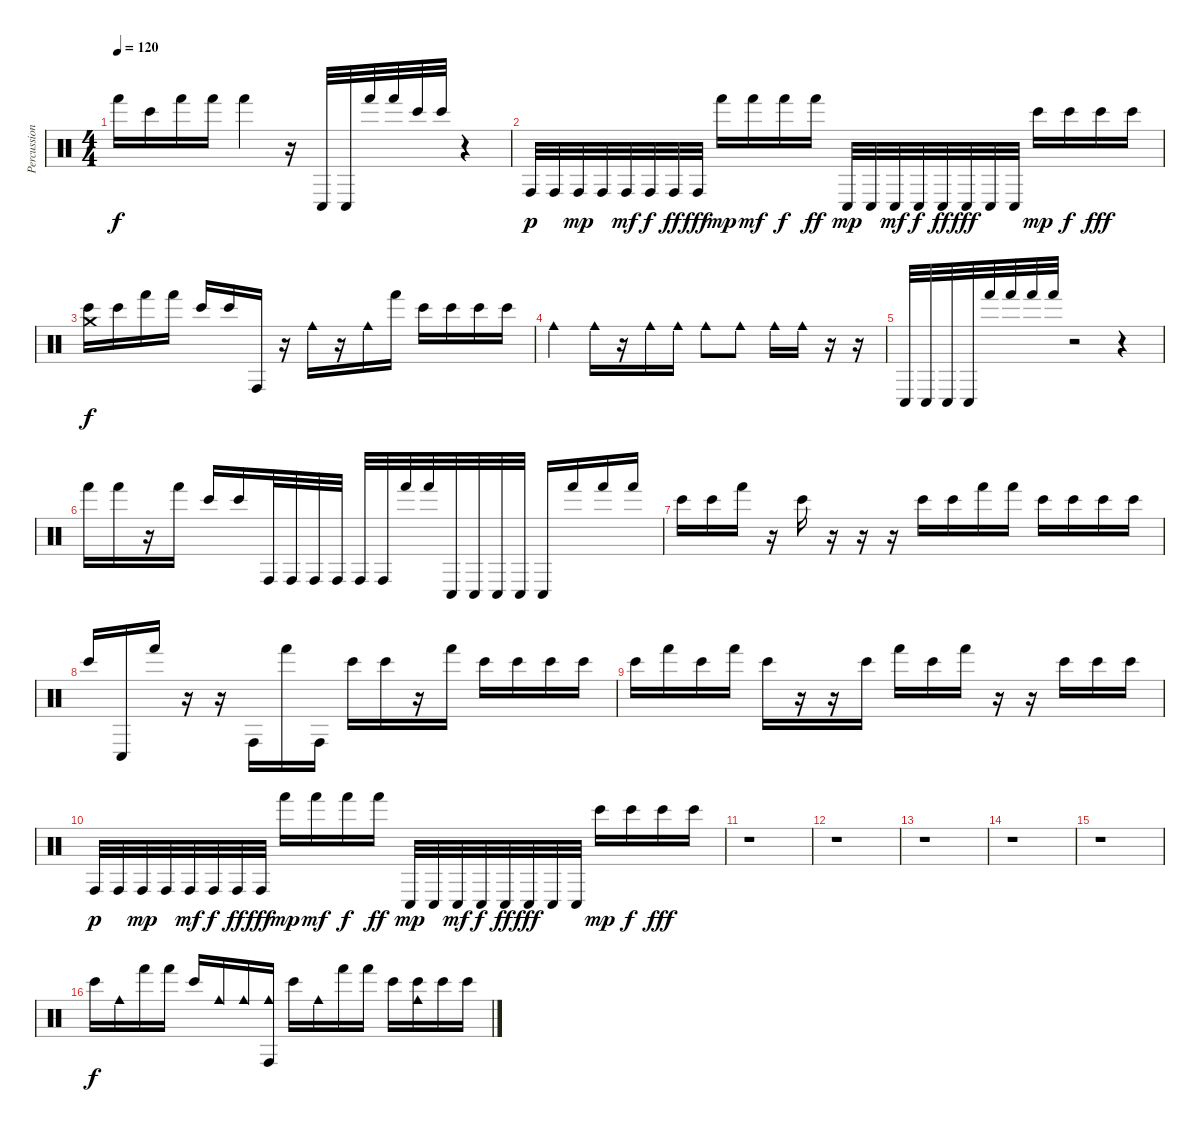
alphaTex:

\track ("Percussions" "Percussion") {instrument percussion}
\staff {score}
\articulation defaults
\ts (4 4)
\tempo 120
\clef neutral
\ks c "Hand (hit)".16{dy f} "Bongo High (hit)".16 "Hand (hit)".16 "Hand (hit)".16 "Hand (hit)".4
r.16 "Conga low (hit)".32 "Conga low (hit)".32 "Hand (hit)".32 "Hand (hit)".32 "Bongo High (hit)".32 "Bongo High (hit)".32 r.4 |
"Conga high (hit)".32{dy p} "Conga high (hit)".32 "Conga high (hit)".32{dy mp} "Conga high (hit)".32 "Conga high (hit)".32{dy mf} "Conga high (hit)".32{dy f} "Conga high (hit)".32{dy ff} "Conga high (hit)".32{dy fff} "Hand (hit)".16{dy mp} "Hand (hit)".16{dy mf} "Hand (hit)".16{dy f} "Hand (hit)".16{dy ff} "Conga low (hit)".32{dy mp} "Conga low (hit)".32 "Conga low (hit)".32{dy mf} "Conga low (hit)".32{dy f} "Conga low (hit)".32{dy ff} "Conga low (hit)".32{dy fff} "Conga low (hit)".32 "Conga low (hit)".32 "Bongo High (hit)".16{dy mp} "Bongo High (hit)".16{dy f} "Bongo High (hit)".16{dy fff} "Bongo High (hit)".16 |
("Crash medium (hit)" "Bongo High (hit)").16{dy f} "Bongo High (hit)".16 "Hand (hit)".16 "Hand (hit)".16 "Bongo High (hit)".16 "Bongo High (hit)".16 "Conga high (hit)".16 r.16 "Cowbell medium (hit)".16 r.16 "Cowbell medium (hit)".16 "Hand (hit)".16 "Bongo High (hit)".16 "Bongo High (hit)".16 "Bongo High (hit)".16 "Bongo High (hit)".16 |
"Cowbell medium (hit)".4 "Cowbell medium (hit)".16 r.16 "Cowbell medium (hit)".16 "Cowbell medium (hit)".16 "Cowbell medium (hit)".8 "Cowbell medium (hit)".8 "Cowbell medium (hit)".16 "Cowbell medium (hit)".16 r.16 r.16 |
"Conga low (hit)".32 "Conga low (hit)".32 "Conga low (hit)".32 "Conga low (hit)".32 "Hand (hit)".32 "Hand (hit)".32 "Hand (hit)".32 "Hand (hit)".32 r.2 r.4 |
"Hand (hit)".16 "Hand (hit)".16 r.16 "Hand (hit)".16 "Bongo High (hit)".16 "Bongo High (hit)".16 "Conga high (hit)".32 "Conga high (hit)".32 "Conga high (hit)".32 "Conga high (hit)".32 "Conga high (hit)".32 "Conga high (hit)".32 "Hand (hit)".32 "Hand (hit)".32 "Conga low (hit)".32 "Conga low (hit)".32 "Conga low (hit)".32 "Conga low (hit)".32 "Conga low (hit)".16 "Hand (hit)".16 "Hand (hit)".16 "Hand (hit)".16 |
"Bongo High (hit)".16 "Bongo High (hit)".16 "Hand (hit)".16 r.16 "Bongo High (hit)".16 r.16 r.16 r.16 "Bongo High (hit)".16 "Bongo High (hit)".16 "Hand (hit)".16 "Hand (hit)".16 "Bongo High (hit)".16 "Bongo High (hit)".16 "Bongo High (hit)".16 "Bongo High (hit)".16 |
"Bongo High (hit)".16 "Conga low (hit)".16 "Hand (hit)".16 r.16 r.16 "Conga high (hit)".16 "Hand (hit)".16 "Conga high (hit)".16 "Bongo High (hit)".16 "Bongo High (hit)".16 r.16 "Hand (hit)".16 "Bongo High (hit)".16 "Bongo High (hit)".16 "Bongo High (hit)".16 "Bongo High (hit)".16 |
"Bongo High (hit)".16 "Hand (hit)".16 "Bongo High (hit)".16 "Hand (hit)".16 "Bongo High (hit)".16 r.16 r.16 "Bongo High (hit)".16 "Hand (hit)".16 "Bongo High (hit)".16 "Hand (hit)".16 r.16 r.16 "Bongo High (hit)".16 "Bongo High (hit)".16 "Bongo High (hit)".16 |
"Conga high (hit)".32{dy p} "Conga high (hit)".32 "Conga high (hit)".32{dy mp} "Conga high (hit)".32 "Conga high (hit)".32{dy mf} "Conga high (hit)".32{dy f} "Conga high (hit)".32{dy ff} "Conga high (hit)".32{dy fff} "Hand (hit)".16{dy mp} "Hand (hit)".16{dy mf} "Hand (hit)".16{dy f} "Hand (hit)".16{dy ff} "Conga low (hit)".32{dy mp} "Conga low (hit)".32 "Conga low (hit)".32{dy mf} "Conga low (hit)".32{dy f} "Conga low (hit)".32{dy ff} "Conga low (hit)".32{dy fff} "Conga low (hit)".32 "Conga low (hit)".32 "Bongo High (hit)".16{dy mp} "Bongo High (hit)".16{dy f} "Bongo High (hit)".16{dy fff} "Bongo High (hit)".16 |
r.1 |
r.1 |
r.1 |
r.1 |
r.1 |
"Bongo High (hit)".16{dy f} "Cowbell medium (hit)".16 "Hand (hit)".16 "Hand (hit)".16 "Bongo High (hit)".16 "Cowbell medium (hit)".16 "Cowbell medium (hit)".16 ("Cowbell medium (hit)" "Conga high (hit)").16 "Bongo High (hit)".16 "Cowbell medium (hit)".16 "Hand (hit)".16 "Hand (hit)".16 "Bongo High (hit)".16 ("Cowbell medium (hit)" "Bongo High (hit)").16 "Bongo High (hit)".16 "Bongo High (hit)".16
